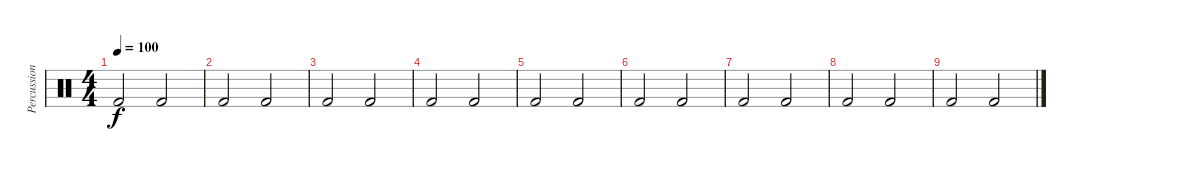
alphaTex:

\track ("Percussion" "Percussion") {mute instrument percussion}
\staff {score}
\articulation defaults
\ts (4 4)
\tempo 100
\clef neutral
\ks c "Kick (hit) 2".2{dy f} "Kick (hit) 2".2
|
"Kick (hit) 2".2 "Kick (hit) 2".2 |
"Kick (hit) 2".2 "Kick (hit) 2".2 |
"Kick (hit) 2".2 "Kick (hit) 2".2 |
"Kick (hit) 2".2 "Kick (hit) 2".2 |
"Kick (hit) 2".2 "Kick (hit) 2".2 |
"Kick (hit) 2".2 "Kick (hit) 2".2 |
"Kick (hit) 2".2 "Kick (hit) 2".2 |
"Kick (hit) 2".2 "Kick (hit) 2".2
